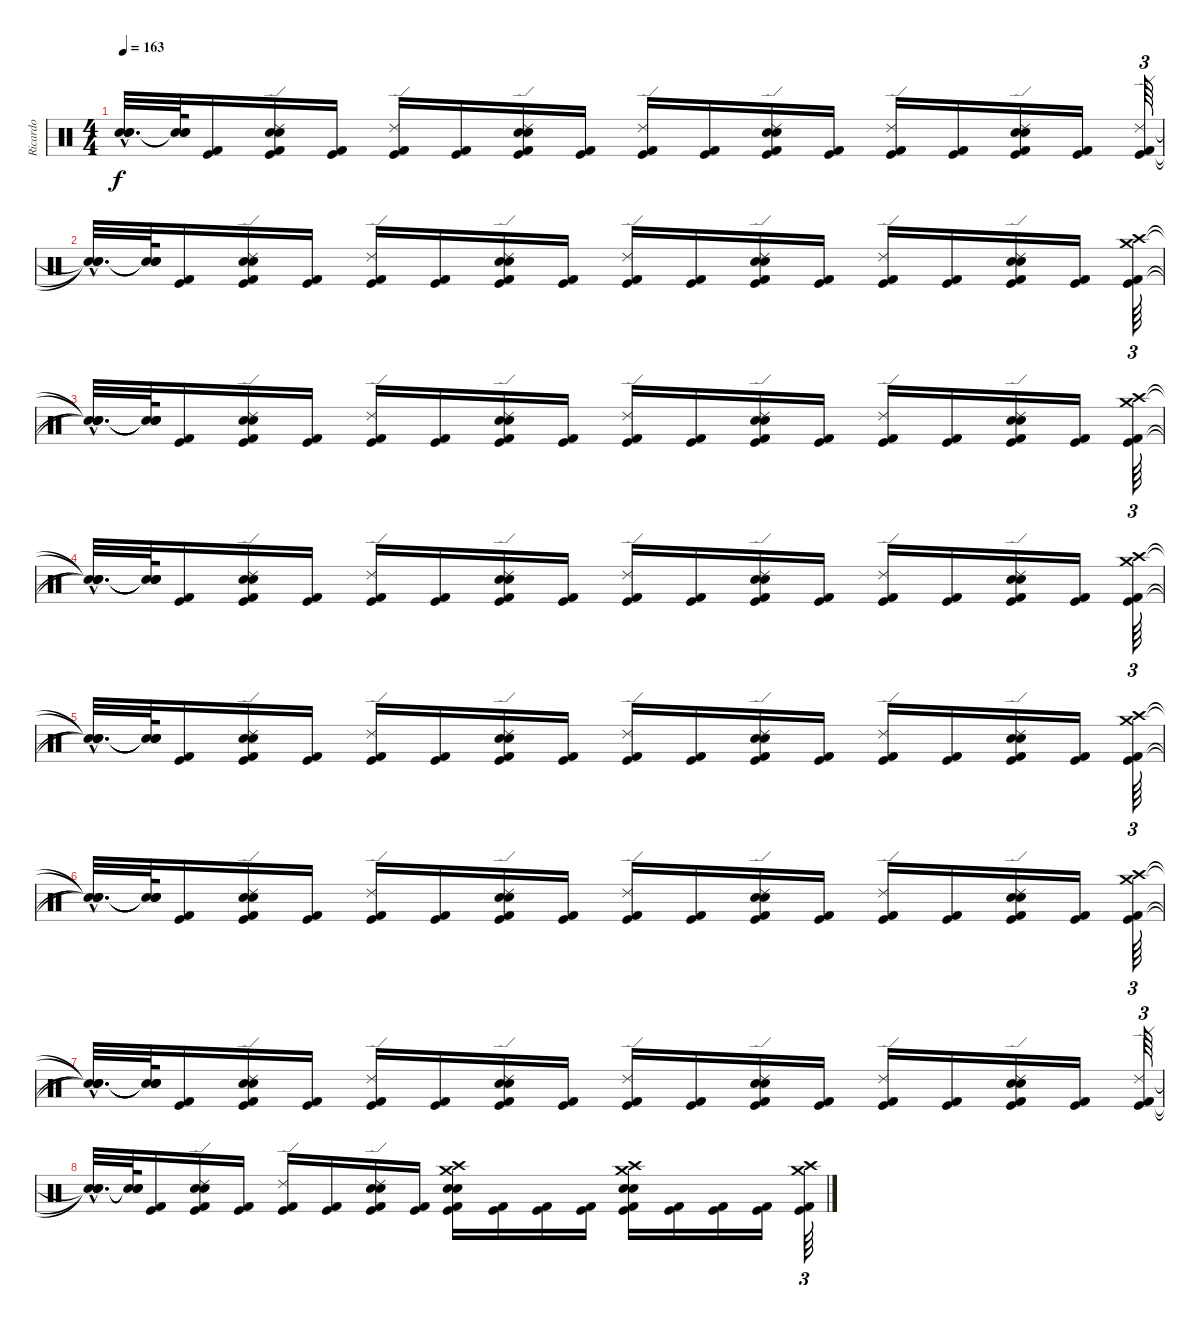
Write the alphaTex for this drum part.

\track ("Ricardo" "Ricardo") {instrument percussion}
\staff {score}
\articulation defaults
\ts (4 4)
\tempo 163
\clef neutral
\ks c
("Snare (hit)"{hac t} "Snare (hit)"{hac t} "Snare (hit)"{hac t}).32{d dy f} ("Snare (hit)"{t} "Snare (hit)"{t} "Snare (hit)"{t}).64 ("Kick (hit) 2" "Kick (hit)").16 ("Ride (edge) 2" "Electric Snare (hit)" "Snare (hit) 2" "Kick (hit) 2" "Kick (hit)").16 ("Kick (hit) 2" "Kick (hit)").16 ("Ride (edge) 2" "Kick (hit) 2" "Kick (hit)").16 ("Kick (hit) 2" "Kick (hit)").16 ("Ride (edge) 2" "Electric Snare (hit)" "Snare (hit) 2" "Kick (hit) 2" "Kick (hit)").16 ("Kick (hit) 2" "Kick (hit)").16 ("Ride (edge) 2" "Kick (hit) 2" "Kick (hit)").16 ("Kick (hit) 2" "Kick (hit)").16 ("Ride (edge) 2" "Electric Snare (hit)" "Snare (hit) 2" "Kick (hit) 2" "Kick (hit)").16 ("Kick (hit) 2" "Kick (hit)").16 ("Ride (edge) 2" "Kick (hit) 2" "Kick (hit)").16 ("Kick (hit) 2" "Kick (hit)").16 ("Ride (edge) 2" "Electric Snare (hit)" "Snare (hit) 2" "Kick (hit) 2" "Kick (hit)").16 ("Kick (hit) 2" "Kick (hit)").16 ("Ride (edge) 2" "Kick (hit) 2" "Kick (hit)").64{tu (3 2)} |
("Snare (hit)"{hac t} "Snare (hit)"{hac t} "Snare (hit)"{hac t}).32{d} ("Snare (hit)"{t} "Snare (hit)"{t} "Snare (hit)"{t}).64 ("Kick (hit) 2" "Kick (hit)").16 ("Ride (edge) 2" "Electric Snare (hit)" "Snare (hit) 2" "Kick (hit) 2" "Kick (hit)").16 ("Kick (hit) 2" "Kick (hit)").16 ("Ride (edge) 2" "Kick (hit) 2" "Kick (hit)").16 ("Kick (hit) 2" "Kick (hit)").16 ("Ride (edge) 2" "Electric Snare (hit)" "Snare (hit) 2" "Kick (hit) 2" "Kick (hit)").16 ("Kick (hit) 2" "Kick (hit)").16 ("Ride (edge) 2" "Kick (hit) 2" "Kick (hit)").16 ("Kick (hit) 2" "Kick (hit)").16 ("Ride (edge) 2" "Electric Snare (hit)" "Snare (hit) 2" "Kick (hit) 2" "Kick (hit)").16 ("Kick (hit) 2" "Kick (hit)").16 ("Ride (edge) 2" "Kick (hit) 2" "Kick (hit)").16 ("Kick (hit) 2" "Kick (hit)").16 ("Ride (edge) 2" "Electric Snare (hit)" "Snare (hit) 2" "Kick (hit) 2" "Kick (hit)").16 ("Kick (hit) 2" "Kick (hit)").16 ("Crash high (hit)" "Crash medium (hit)" "Kick (hit) 2" "Kick (hit)").64{tu (3 2)} |
("Snare (hit)"{hac t} "Snare (hit)"{hac t} "Snare (hit)"{hac t} "Snare (hit)"{hac t}).32{d} ("Snare (hit)"{t} "Snare (hit)"{t} "Snare (hit)"{t} "Snare (hit)"{t}).64 ("Kick (hit) 2" "Kick (hit)").16 ("Ride (edge) 2" "Electric Snare (hit)" "Snare (hit) 2" "Kick (hit) 2" "Kick (hit)").16 ("Kick (hit) 2" "Kick (hit)").16 ("Ride (edge) 2" "Kick (hit) 2" "Kick (hit)").16 ("Kick (hit) 2" "Kick (hit)").16 ("Ride (edge) 2" "Electric Snare (hit)" "Snare (hit) 2" "Kick (hit) 2" "Kick (hit)").16 ("Kick (hit) 2" "Kick (hit)").16 ("Ride (edge) 2" "Kick (hit) 2" "Kick (hit)").16 ("Kick (hit) 2" "Kick (hit)").16 ("Ride (edge) 2" "Electric Snare (hit)" "Snare (hit) 2" "Kick (hit) 2" "Kick (hit)").16 ("Kick (hit) 2" "Kick (hit)").16 ("Ride (edge) 2" "Kick (hit) 2" "Kick (hit)").16 ("Kick (hit) 2" "Kick (hit)").16 ("Ride (edge) 2" "Electric Snare (hit)" "Snare (hit) 2" "Kick (hit) 2" "Kick (hit)").16 ("Kick (hit) 2" "Kick (hit)").16 ("Crash high (hit)" "Crash medium (hit)" "Kick (hit) 2" "Kick (hit)").64{tu (3 2)} |
("Snare (hit)"{hac t} "Snare (hit)"{hac t} "Snare (hit)"{hac t} "Snare (hit)"{hac t}).32{d} ("Snare (hit)"{t} "Snare (hit)"{t} "Snare (hit)"{t} "Snare (hit)"{t}).64 ("Kick (hit) 2" "Kick (hit)").16 ("Ride (edge) 2" "Electric Snare (hit)" "Snare (hit) 2" "Kick (hit) 2" "Kick (hit)").16 ("Kick (hit) 2" "Kick (hit)").16 ("Ride (edge) 2" "Kick (hit) 2" "Kick (hit)").16 ("Kick (hit) 2" "Kick (hit)").16 ("Ride (edge) 2" "Electric Snare (hit)" "Snare (hit) 2" "Kick (hit) 2" "Kick (hit)").16 ("Kick (hit) 2" "Kick (hit)").16 ("Ride (edge) 2" "Kick (hit) 2" "Kick (hit)").16 ("Kick (hit) 2" "Kick (hit)").16 ("Ride (edge) 2" "Electric Snare (hit)" "Snare (hit) 2" "Kick (hit) 2" "Kick (hit)").16 ("Kick (hit) 2" "Kick (hit)").16 ("Ride (edge) 2" "Kick (hit) 2" "Kick (hit)").16 ("Kick (hit) 2" "Kick (hit)").16 ("Ride (edge) 2" "Electric Snare (hit)" "Snare (hit) 2" "Kick (hit) 2" "Kick (hit)").16 ("Kick (hit) 2" "Kick (hit)").16 ("Crash high (hit)" "Crash medium (hit)" "Kick (hit) 2" "Kick (hit)").64{tu (3 2)} |
("Snare (hit)"{hac t} "Snare (hit)"{hac t} "Snare (hit)"{hac t} "Snare (hit)"{hac t}).32{d} ("Snare (hit)"{t} "Snare (hit)"{t} "Snare (hit)"{t} "Snare (hit)"{t}).64 ("Kick (hit) 2" "Kick (hit)").16 ("Ride (edge) 2" "Electric Snare (hit)" "Snare (hit) 2" "Kick (hit) 2" "Kick (hit)").16 ("Kick (hit) 2" "Kick (hit)").16 ("Ride (edge) 2" "Kick (hit) 2" "Kick (hit)").16 ("Kick (hit) 2" "Kick (hit)").16 ("Ride (edge) 2" "Electric Snare (hit)" "Snare (hit) 2" "Kick (hit) 2" "Kick (hit)").16 ("Kick (hit) 2" "Kick (hit)").16 ("Ride (edge) 2" "Kick (hit) 2" "Kick (hit)").16 ("Kick (hit) 2" "Kick (hit)").16 ("Ride (edge) 2" "Electric Snare (hit)" "Snare (hit) 2" "Kick (hit) 2" "Kick (hit)").16 ("Kick (hit) 2" "Kick (hit)").16 ("Ride (edge) 2" "Kick (hit) 2" "Kick (hit)").16 ("Kick (hit) 2" "Kick (hit)").16 ("Ride (edge) 2" "Electric Snare (hit)" "Snare (hit) 2" "Kick (hit) 2" "Kick (hit)").16 ("Kick (hit) 2" "Kick (hit)").16 ("Crash high (hit)" "Crash medium (hit)" "Kick (hit) 2" "Kick (hit)").64{tu (3 2)} |
("Snare (hit)"{hac t} "Snare (hit)"{hac t} "Snare (hit)"{hac t} "Snare (hit)"{hac t}).32{d} ("Snare (hit)"{t} "Snare (hit)"{t} "Snare (hit)"{t} "Snare (hit)"{t}).64 ("Kick (hit) 2" "Kick (hit)").16 ("Ride (edge) 2" "Electric Snare (hit)" "Snare (hit) 2" "Kick (hit) 2" "Kick (hit)").16 ("Kick (hit) 2" "Kick (hit)").16 ("Ride (edge) 2" "Kick (hit) 2" "Kick (hit)").16 ("Kick (hit) 2" "Kick (hit)").16 ("Ride (edge) 2" "Electric Snare (hit)" "Snare (hit) 2" "Kick (hit) 2" "Kick (hit)").16 ("Kick (hit) 2" "Kick (hit)").16 ("Ride (edge) 2" "Kick (hit) 2" "Kick (hit)").16 ("Kick (hit) 2" "Kick (hit)").16 ("Ride (edge) 2" "Electric Snare (hit)" "Snare (hit) 2" "Kick (hit) 2" "Kick (hit)").16 ("Kick (hit) 2" "Kick (hit)").16 ("Ride (edge) 2" "Kick (hit) 2" "Kick (hit)").16 ("Kick (hit) 2" "Kick (hit)").16 ("Ride (edge) 2" "Electric Snare (hit)" "Snare (hit) 2" "Kick (hit) 2" "Kick (hit)").16 ("Kick (hit) 2" "Kick (hit)").16 ("Crash high (hit)" "Crash medium (hit)" "Kick (hit) 2" "Kick (hit)").64{tu (3 2)} |
("Snare (hit)"{hac t} "Snare (hit)"{hac t} "Snare (hit)"{hac t} "Snare (hit)"{hac t}).32{d} ("Snare (hit)"{t} "Snare (hit)"{t} "Snare (hit)"{t} "Snare (hit)"{t}).64 ("Kick (hit) 2" "Kick (hit)").16 ("Ride (edge) 2" "Electric Snare (hit)" "Snare (hit) 2" "Kick (hit) 2" "Kick (hit)").16 ("Kick (hit) 2" "Kick (hit)").16 ("Ride (edge) 2" "Kick (hit) 2" "Kick (hit)").16 ("Kick (hit) 2" "Kick (hit)").16 ("Ride (edge) 2" "Electric Snare (hit)" "Snare (hit) 2" "Kick (hit) 2" "Kick (hit)").16 ("Kick (hit) 2" "Kick (hit)").16 ("Ride (edge) 2" "Kick (hit) 2" "Kick (hit)").16 ("Kick (hit) 2" "Kick (hit)").16 ("Ride (edge) 2" "Electric Snare (hit)" "Snare (hit) 2" "Kick (hit) 2" "Kick (hit)").16 ("Kick (hit) 2" "Kick (hit)").16 ("Ride (edge) 2" "Kick (hit) 2" "Kick (hit)").16 ("Kick (hit) 2" "Kick (hit)").16 ("Ride (edge) 2" "Electric Snare (hit)" "Snare (hit) 2" "Kick (hit) 2" "Kick (hit)").16 ("Kick (hit) 2" "Kick (hit)").16 ("Ride (edge) 2" "Kick (hit) 2" "Kick (hit)").64{tu (3 2)} |
("Snare (hit)"{hac t} "Snare (hit)"{hac t} "Snare (hit)"{hac t}).32{d} ("Snare (hit)"{t} "Snare (hit)"{t} "Snare (hit)"{t}).64 ("Kick (hit) 2" "Kick (hit)").16 ("Ride (edge) 2" "Electric Snare (hit)" "Snare (hit) 2" "Kick (hit) 2" "Kick (hit)").16 ("Kick (hit) 2" "Kick (hit)").16 ("Ride (edge) 2" "Kick (hit) 2" "Kick (hit)").16 ("Kick (hit) 2" "Kick (hit)").16 ("Ride (edge) 2" "Electric Snare (hit)" "Snare (hit) 2" "Kick (hit) 2" "Kick (hit)").16 ("Kick (hit) 2" "Kick (hit)").16 ("Crash high (hit)" "Crash medium (hit)" "Electric Snare (hit)" "Snare (hit) 2" "Kick (hit) 2" "Kick (hit)").16 ("Kick (hit) 2" "Kick (hit)").16 ("Kick (hit) 2" "Kick (hit)").16 ("Kick (hit) 2" "Kick (hit)").16 ("Electric Snare (hit)" "Snare (hit) 2" "Crash medium (hit)" "Crash high (hit)" "Kick (hit) 2" "Kick (hit)").16 ("Kick (hit) 2" "Kick (hit)").16 ("Kick (hit) 2" "Kick (hit)").16 ("Kick (hit) 2" "Kick (hit)").16 ("Crash high (hit)" "Crash medium (hit)" "Kick (hit) 2" "Kick (hit)").64{tu (3 2)}
